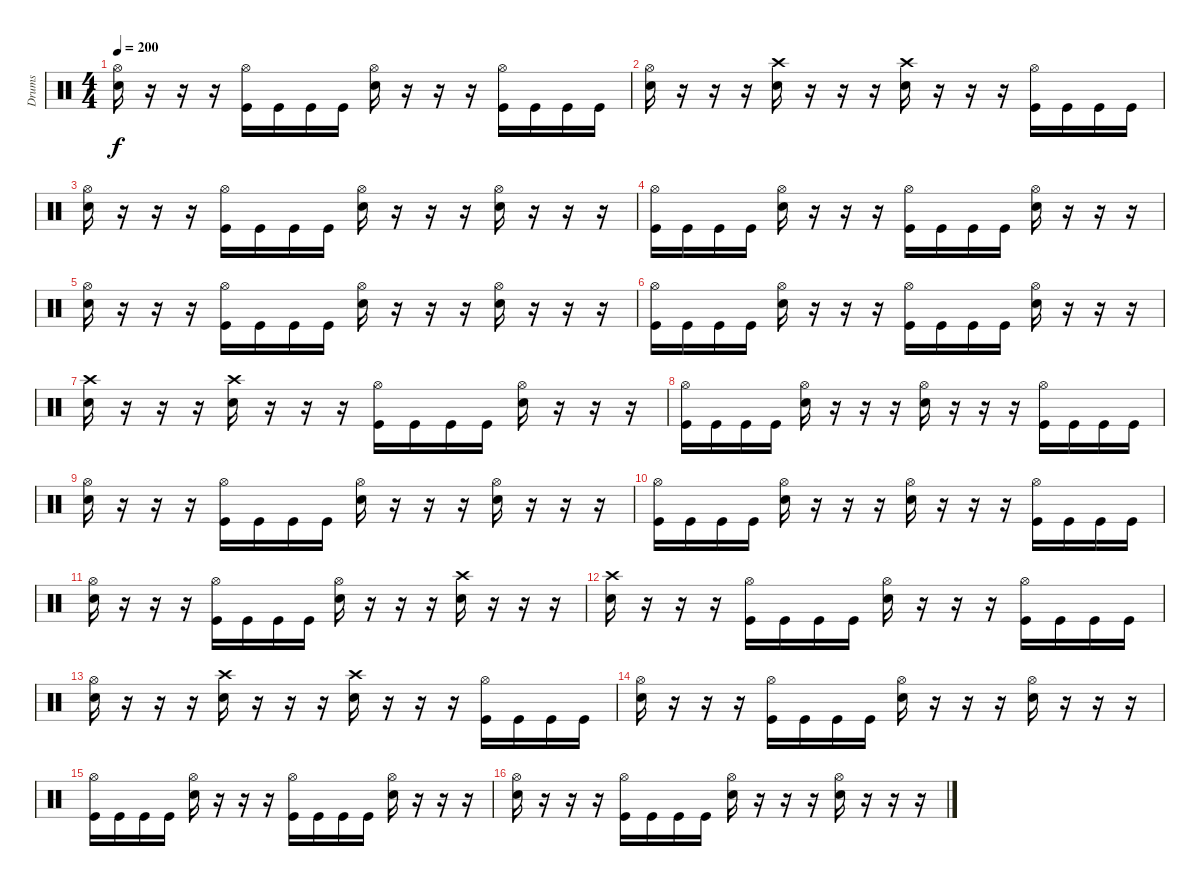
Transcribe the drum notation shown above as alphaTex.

\track ("Drums" "Drums") {instrument percussion}
\staff {score}
\articulation defaults
\ts (4 4)
\tempo 200
\clef neutral
\ks c
("Hi-Hat (open)" "Snare (hit) 2").16{dy f} r.16 r.16 r.16 ("Hi-Hat (open)" "Kick (hit)").16 "Kick (hit)".16 "Kick (hit)".16 "Kick (hit)".16 ("Hi-Hat (open)" "Snare (hit) 2").16 r.16 r.16 r.16 ("Hi-Hat (open)" "Kick (hit)").16 "Kick (hit)".16 "Kick (hit)".16 "Kick (hit)".16 |
("Hi-Hat (open)" "Snare (hit) 2").16 r.16 r.16 r.16 ("Crash high (hit)" "Snare (hit) 2").16 r.16 r.16 r.16 ("Crash high (hit)" "Snare (hit) 2").16 r.16 r.16 r.16 ("Hi-Hat (open)" "Kick (hit)").16 "Kick (hit)".16 "Kick (hit)".16 "Kick (hit)".16 |
("Hi-Hat (open)" "Snare (hit) 2").16 r.16 r.16 r.16 ("Hi-Hat (open)" "Kick (hit)").16 "Kick (hit)".16 "Kick (hit)".16 "Kick (hit)".16 ("Hi-Hat (open)" "Snare (hit) 2").16 r.16 r.16 r.16 ("Hi-Hat (open)" "Snare (hit) 2").16 r.16 r.16 r.16 |
("Hi-Hat (open)" "Kick (hit)").16 "Kick (hit)".16 "Kick (hit)".16 "Kick (hit)".16 ("Hi-Hat (open)" "Snare (hit) 2").16 r.16 r.16 r.16 ("Hi-Hat (open)" "Kick (hit)").16 "Kick (hit)".16 "Kick (hit)".16 "Kick (hit)".16 ("Hi-Hat (open)" "Snare (hit) 2").16 r.16 r.16 r.16 |
("Hi-Hat (open)" "Snare (hit) 2").16 r.16 r.16 r.16 ("Hi-Hat (open)" "Kick (hit)").16 "Kick (hit)".16 "Kick (hit)".16 "Kick (hit)".16 ("Hi-Hat (open)" "Snare (hit) 2").16 r.16 r.16 r.16 ("Hi-Hat (open)" "Snare (hit) 2").16 r.16 r.16 r.16 |
("Hi-Hat (open)" "Kick (hit)").16 "Kick (hit)".16 "Kick (hit)".16 "Kick (hit)".16 ("Hi-Hat (open)" "Snare (hit) 2").16 r.16 r.16 r.16 ("Hi-Hat (open)" "Kick (hit)").16 "Kick (hit)".16 "Kick (hit)".16 "Kick (hit)".16 ("Hi-Hat (open)" "Snare (hit) 2").16 r.16 r.16 r.16 |
("Crash high (hit)" "Snare (hit) 2").16 r.16 r.16 r.16 ("Crash high (hit)" "Snare (hit) 2").16 r.16 r.16 r.16 ("Hi-Hat (open)" "Kick (hit)").16 "Kick (hit)".16 "Kick (hit)".16 "Kick (hit)".16 ("Hi-Hat (open)" "Snare (hit) 2").16 r.16 r.16 r.16 |
("Hi-Hat (open)" "Kick (hit)").16 "Kick (hit)".16 "Kick (hit)".16 "Kick (hit)".16 ("Hi-Hat (open)" "Snare (hit) 2").16 r.16 r.16 r.16 ("Hi-Hat (open)" "Snare (hit) 2").16 r.16 r.16 r.16 ("Hi-Hat (open)" "Kick (hit)").16 "Kick (hit)".16 "Kick (hit)".16 "Kick (hit)".16 |
("Hi-Hat (open)" "Snare (hit) 2").16 r.16 r.16 r.16 ("Hi-Hat (open)" "Kick (hit)").16 "Kick (hit)".16 "Kick (hit)".16 "Kick (hit)".16 ("Hi-Hat (open)" "Snare (hit) 2").16 r.16 r.16 r.16 ("Hi-Hat (open)" "Snare (hit) 2").16 r.16 r.16 r.16 |
("Hi-Hat (open)" "Kick (hit)").16 "Kick (hit)".16 "Kick (hit)".16 "Kick (hit)".16 ("Hi-Hat (open)" "Snare (hit) 2").16 r.16 r.16 r.16 ("Hi-Hat (open)" "Snare (hit) 2").16 r.16 r.16 r.16 ("Hi-Hat (open)" "Kick (hit)").16 "Kick (hit)".16 "Kick (hit)".16 "Kick (hit)".16 |
("Hi-Hat (open)" "Snare (hit) 2").16 r.16 r.16 r.16 ("Hi-Hat (open)" "Kick (hit)").16 "Kick (hit)".16 "Kick (hit)".16 "Kick (hit)".16 ("Hi-Hat (open)" "Snare (hit) 2").16 r.16 r.16 r.16 ("Crash high (hit)" "Snare (hit) 2").16 r.16 r.16 r.16 |
("Crash high (hit)" "Snare (hit) 2").16 r.16 r.16 r.16 ("Hi-Hat (open)" "Kick (hit)").16 "Kick (hit)".16 "Kick (hit)".16 "Kick (hit)".16 ("Hi-Hat (open)" "Snare (hit) 2").16 r.16 r.16 r.16 ("Hi-Hat (open)" "Kick (hit)").16 "Kick (hit)".16 "Kick (hit)".16 "Kick (hit)".16 |
("Hi-Hat (open)" "Snare (hit) 2").16 r.16 r.16 r.16 ("Crash high (hit)" "Snare (hit) 2").16 r.16 r.16 r.16 ("Crash high (hit)" "Snare (hit) 2").16 r.16 r.16 r.16 ("Hi-Hat (open)" "Kick (hit)").16 "Kick (hit)".16 "Kick (hit)".16 "Kick (hit)".16 |
("Hi-Hat (open)" "Snare (hit) 2").16 r.16 r.16 r.16 ("Hi-Hat (open)" "Kick (hit)").16 "Kick (hit)".16 "Kick (hit)".16 "Kick (hit)".16 ("Hi-Hat (open)" "Snare (hit) 2").16 r.16 r.16 r.16 ("Hi-Hat (open)" "Snare (hit) 2").16 r.16 r.16 r.16 |
("Hi-Hat (open)" "Kick (hit)").16 "Kick (hit)".16 "Kick (hit)".16 "Kick (hit)".16 ("Hi-Hat (open)" "Snare (hit) 2").16 r.16 r.16 r.16 ("Hi-Hat (open)" "Kick (hit)").16 "Kick (hit)".16 "Kick (hit)".16 "Kick (hit)".16 ("Hi-Hat (open)" "Snare (hit) 2").16 r.16 r.16 r.16 |
("Hi-Hat (open)" "Snare (hit) 2").16 r.16 r.16 r.16 ("Hi-Hat (open)" "Kick (hit)").16 "Kick (hit)".16 "Kick (hit)".16 "Kick (hit)".16 ("Hi-Hat (open)" "Snare (hit) 2").16 r.16 r.16 r.16 ("Hi-Hat (open)" "Snare (hit) 2").16 r.16 r.16 r.16
